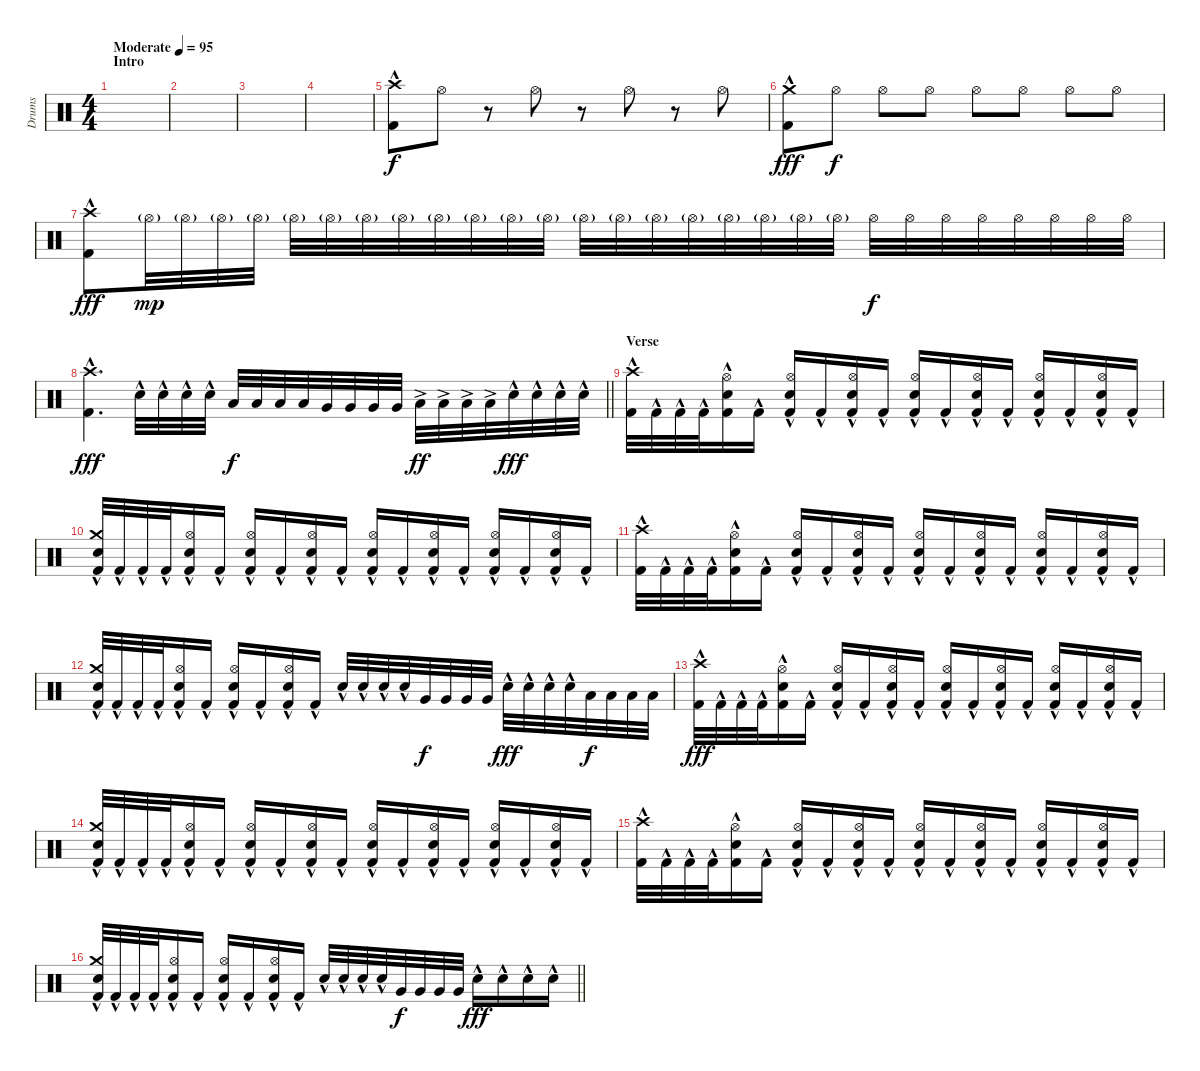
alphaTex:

\track ("Drums" "Drums") {instrument percussion}
\staff {score}
\articulation defaults
\ts (4 4)
\section ("" "Intro")
\tempo (95 "Moderate")
\clef neutral
\ks c
|
|
|
|
("Crash high (hit)" "Kick (hit) 2"{hac}).8 "Hi-Hat (open)".8{dy f} r.8 "Hi-Hat (open)".8 r.8 "Hi-Hat (open)".8 r.8 "Hi-Hat (open)".8 |
("Crash medium (hit)" "Kick (hit) 2"{hac}).8{dy fff} "Hi-Hat (open)".8{dy f} "Hi-Hat (open)".8 "Hi-Hat (open)".8 "Hi-Hat (open)".8 "Hi-Hat (open)".8 "Hi-Hat (open)".8 "Hi-Hat (open)".8 |
("Crash high (hit)" "Kick (hit) 2"{hac}).8{dy fff} "Hi-Hat (open)"{g}.32{dy mp} "Hi-Hat (open)"{g}.32 "Hi-Hat (open)"{g}.32 "Hi-Hat (open)"{g}.32 "Hi-Hat (open)"{g}.32 "Hi-Hat (open)"{g}.32 "Hi-Hat (open)"{g}.32 "Hi-Hat (open)"{g}.32 "Hi-Hat (open)"{g}.32 "Hi-Hat (open)"{g}.32 "Hi-Hat (open)"{g}.32 "Hi-Hat (open)"{g}.32 "Hi-Hat (open)"{g}.32 "Hi-Hat (open)"{g}.32 "Hi-Hat (open)"{g}.32 "Hi-Hat (open)"{g}.32 "Hi-Hat (open)"{g}.32 "Hi-Hat (open)"{g}.32 "Hi-Hat (open)"{g}.32 "Hi-Hat (open)"{g}.32 "Hi-Hat (open)".32{dy f} "Hi-Hat (open)".32 "Hi-Hat (open)".32 "Hi-Hat (open)".32 "Hi-Hat (open)".32 "Hi-Hat (open)".32 "Hi-Hat (open)".32 "Hi-Hat (open)".32 |
\barLineRight lightlight
("Crash high (hit)" "Kick (hit) 2"{hac}).4{d dy fff} "Electric Snare (hit)"{hac}.32 "Electric Snare (hit)"{hac}.32 "Electric Snare (hit)"{hac}.32 "Electric Snare (hit)"{hac}.32 "Low Tom (hit)".32{dy f} "Low Tom (hit)".32 "Low Tom (hit)".32 "Low Tom (hit)".32 "Very Low Tom (hit)".32 "Very Low Tom (hit)".32 "Very Low Tom (hit)".32 "Very Low Tom (hit)".32 "Low Floor Tom (hit)"{ac}.32{dy ff} "Low Floor Tom (hit)"{ac}.32 "Low Floor Tom (hit)"{ac}.32 "Low Floor Tom (hit)"{ac}.32 "Electric Snare (hit)"{hac}.32{dy fff} "Electric Snare (hit)"{hac}.32 "Electric Snare (hit)"{hac}.32 "Electric Snare (hit)"{hac}.32 |
\section ("" "Verse")
("Crash high (hit)" "Kick (hit) 2"{hac}).32 "Kick (hit) 2"{hac}.32 "Kick (hit) 2"{hac}.32 "Kick (hit) 2"{hac}.32 ("Hi-Hat (open)" "Electric Snare (hit)"{hac} "Kick (hit) 2"{hac}).16 "Kick (hit) 2"{hac}.16 ("Hi-Hat (open)" "Electric Snare (hit)"{hac} "Kick (hit) 2"{hac}).16 "Kick (hit) 2"{hac}.16 ("Hi-Hat (open)" "Electric Snare (hit)"{hac} "Kick (hit) 2"{hac}).16 "Kick (hit) 2"{hac}.16 ("Hi-Hat (open)" "Electric Snare (hit)"{hac} "Kick (hit) 2"{hac}).16 "Kick (hit) 2"{hac}.16 ("Hi-Hat (open)" "Electric Snare (hit)"{hac} "Kick (hit) 2"{hac}).16 "Kick (hit) 2"{hac}.16 ("Hi-Hat (open)" "Electric Snare (hit)"{hac} "Kick (hit) 2"{hac}).16 "Kick (hit) 2"{hac}.16 ("Hi-Hat (open)" "Electric Snare (hit)"{hac} "Kick (hit) 2"{hac}).16 "Kick (hit) 2"{hac}.16 |
("Crash medium (hit)" "Electric Snare (hit)"{hac} "Kick (hit) 2"{hac}).32 "Kick (hit) 2"{hac}.32 "Kick (hit) 2"{hac}.32 "Kick (hit) 2"{hac}.32 ("Hi-Hat (open)" "Electric Snare (hit)"{hac} "Kick (hit) 2"{hac}).16 "Kick (hit) 2"{hac}.16 ("Hi-Hat (open)" "Electric Snare (hit)"{hac} "Kick (hit) 2"{hac}).16 "Kick (hit) 2"{hac}.16 ("Hi-Hat (open)" "Electric Snare (hit)"{hac} "Kick (hit) 2"{hac}).16 "Kick (hit) 2"{hac}.16 ("Hi-Hat (open)" "Electric Snare (hit)"{hac} "Kick (hit) 2"{hac}).16 "Kick (hit) 2"{hac}.16 ("Hi-Hat (open)" "Electric Snare (hit)"{hac} "Kick (hit) 2"{hac}).16 "Kick (hit) 2"{hac}.16 ("Hi-Hat (open)" "Electric Snare (hit)"{hac} "Kick (hit) 2"{hac}).16 "Kick (hit) 2"{hac}.16 ("Hi-Hat (open)" "Electric Snare (hit)"{hac} "Kick (hit) 2"{hac}).16 "Kick (hit) 2"{hac}.16 |
("Crash high (hit)" "Kick (hit) 2"{hac}).32 "Kick (hit) 2"{hac}.32 "Kick (hit) 2"{hac}.32 "Kick (hit) 2"{hac}.32 ("Hi-Hat (open)" "Electric Snare (hit)"{hac} "Kick (hit) 2"{hac}).16 "Kick (hit) 2"{hac}.16 ("Hi-Hat (open)" "Electric Snare (hit)"{hac} "Kick (hit) 2"{hac}).16 "Kick (hit) 2"{hac}.16 ("Hi-Hat (open)" "Electric Snare (hit)"{hac} "Kick (hit) 2"{hac}).16 "Kick (hit) 2"{hac}.16 ("Hi-Hat (open)" "Electric Snare (hit)"{hac} "Kick (hit) 2"{hac}).16 "Kick (hit) 2"{hac}.16 ("Hi-Hat (open)" "Electric Snare (hit)"{hac} "Kick (hit) 2"{hac}).16 "Kick (hit) 2"{hac}.16 ("Hi-Hat (open)" "Electric Snare (hit)"{hac} "Kick (hit) 2"{hac}).16 "Kick (hit) 2"{hac}.16 ("Hi-Hat (open)" "Electric Snare (hit)"{hac} "Kick (hit) 2"{hac}).16 "Kick (hit) 2"{hac}.16 |
("Crash medium (hit)" "Electric Snare (hit)"{hac} "Kick (hit) 2"{hac}).32 "Kick (hit) 2"{hac}.32 "Kick (hit) 2"{hac}.32 "Kick (hit) 2"{hac}.32 ("Hi-Hat (open)" "Electric Snare (hit)"{hac} "Kick (hit) 2"{hac}).16 "Kick (hit) 2"{hac}.16 ("Hi-Hat (open)" "Electric Snare (hit)"{hac} "Kick (hit) 2"{hac}).16 "Kick (hit) 2"{hac}.16 ("Hi-Hat (open)" "Electric Snare (hit)"{hac} "Kick (hit) 2"{hac}).16 "Kick (hit) 2"{hac}.16 "Electric Snare (hit)"{hac}.32 "Electric Snare (hit)"{hac}.32 "Electric Snare (hit)"{hac}.32 "Electric Snare (hit)"{hac}.32 "Very Low Tom (hit)".32{dy f} "Very Low Tom (hit)".32 "Very Low Tom (hit)".32 "Very Low Tom (hit)".32 "Electric Snare (hit)"{hac}.32{dy fff} "Electric Snare (hit)"{hac}.32 "Electric Snare (hit)"{hac}.32 "Electric Snare (hit)"{hac}.32 "Low Floor Tom (hit)".32{dy f} "Low Floor Tom (hit)".32 "Low Floor Tom (hit)".32 "Low Floor Tom (hit)".32 |
("Crash high (hit)" "Kick (hit) 2"{hac}).32{dy fff} "Kick (hit) 2"{hac}.32 "Kick (hit) 2"{hac}.32 "Kick (hit) 2"{hac}.32 ("Hi-Hat (open)" "Electric Snare (hit)"{hac} "Kick (hit) 2"{hac}).16 "Kick (hit) 2"{hac}.16 ("Hi-Hat (open)" "Electric Snare (hit)"{hac} "Kick (hit) 2"{hac}).16 "Kick (hit) 2"{hac}.16 ("Hi-Hat (open)" "Electric Snare (hit)"{hac} "Kick (hit) 2"{hac}).16 "Kick (hit) 2"{hac}.16 ("Hi-Hat (open)" "Electric Snare (hit)"{hac} "Kick (hit) 2"{hac}).16 "Kick (hit) 2"{hac}.16 ("Hi-Hat (open)" "Electric Snare (hit)"{hac} "Kick (hit) 2"{hac}).16 "Kick (hit) 2"{hac}.16 ("Hi-Hat (open)" "Electric Snare (hit)"{hac} "Kick (hit) 2"{hac}).16 "Kick (hit) 2"{hac}.16 ("Hi-Hat (open)" "Electric Snare (hit)"{hac} "Kick (hit) 2"{hac}).16 "Kick (hit) 2"{hac}.16 |
("Crash medium (hit)" "Electric Snare (hit)"{hac} "Kick (hit) 2"{hac}).32 "Kick (hit) 2"{hac}.32 "Kick (hit) 2"{hac}.32 "Kick (hit) 2"{hac}.32 ("Hi-Hat (open)" "Electric Snare (hit)"{hac} "Kick (hit) 2"{hac}).16 "Kick (hit) 2"{hac}.16 ("Hi-Hat (open)" "Electric Snare (hit)"{hac} "Kick (hit) 2"{hac}).16 "Kick (hit) 2"{hac}.16 ("Hi-Hat (open)" "Electric Snare (hit)"{hac} "Kick (hit) 2"{hac}).16 "Kick (hit) 2"{hac}.16 ("Hi-Hat (open)" "Electric Snare (hit)"{hac} "Kick (hit) 2"{hac}).16 "Kick (hit) 2"{hac}.16 ("Hi-Hat (open)" "Electric Snare (hit)"{hac} "Kick (hit) 2"{hac}).16 "Kick (hit) 2"{hac}.16 ("Hi-Hat (open)" "Electric Snare (hit)"{hac} "Kick (hit) 2"{hac}).16 "Kick (hit) 2"{hac}.16 ("Hi-Hat (open)" "Electric Snare (hit)"{hac} "Kick (hit) 2"{hac}).16 "Kick (hit) 2"{hac}.16 |
("Crash high (hit)" "Kick (hit) 2"{hac}).32 "Kick (hit) 2"{hac}.32 "Kick (hit) 2"{hac}.32 "Kick (hit) 2"{hac}.32 ("Hi-Hat (open)" "Electric Snare (hit)"{hac} "Kick (hit) 2"{hac}).16 "Kick (hit) 2"{hac}.16 ("Hi-Hat (open)" "Electric Snare (hit)"{hac} "Kick (hit) 2"{hac}).16 "Kick (hit) 2"{hac}.16 ("Hi-Hat (open)" "Electric Snare (hit)"{hac} "Kick (hit) 2"{hac}).16 "Kick (hit) 2"{hac}.16 ("Hi-Hat (open)" "Electric Snare (hit)"{hac} "Kick (hit) 2"{hac}).16 "Kick (hit) 2"{hac}.16 ("Hi-Hat (open)" "Electric Snare (hit)"{hac} "Kick (hit) 2"{hac}).16 "Kick (hit) 2"{hac}.16 ("Hi-Hat (open)" "Electric Snare (hit)"{hac} "Kick (hit) 2"{hac}).16 "Kick (hit) 2"{hac}.16 ("Hi-Hat (open)" "Electric Snare (hit)"{hac} "Kick (hit) 2"{hac}).16 "Kick (hit) 2"{hac}.16 |
\barLineRight lightlight
("Crash medium (hit)" "Electric Snare (hit)"{hac} "Kick (hit) 2"{hac}).32 "Kick (hit) 2"{hac}.32 "Kick (hit) 2"{hac}.32 "Kick (hit) 2"{hac}.32 ("Hi-Hat (open)" "Electric Snare (hit)"{hac} "Kick (hit) 2"{hac}).16 "Kick (hit) 2"{hac}.16 ("Hi-Hat (open)" "Electric Snare (hit)"{hac} "Kick (hit) 2"{hac}).16 "Kick (hit) 2"{hac}.16 ("Hi-Hat (open)" "Electric Snare (hit)"{hac} "Kick (hit) 2"{hac}).16 "Kick (hit) 2"{hac}.16 "Electric Snare (hit)"{hac}.32 "Electric Snare (hit)"{hac}.32 "Electric Snare (hit)"{hac}.32 "Electric Snare (hit)"{hac}.32 "Very Low Tom (hit)".32{dy f} "Very Low Tom (hit)".32 "Very Low Tom (hit)".32 "Very Low Tom (hit)".32 "Electric Snare (hit)"{hac}.16{dy fff} "Electric Snare (hit)"{hac}.16 "Electric Snare (hit)"{hac}.16 "Electric Snare (hit)"{hac}.16
